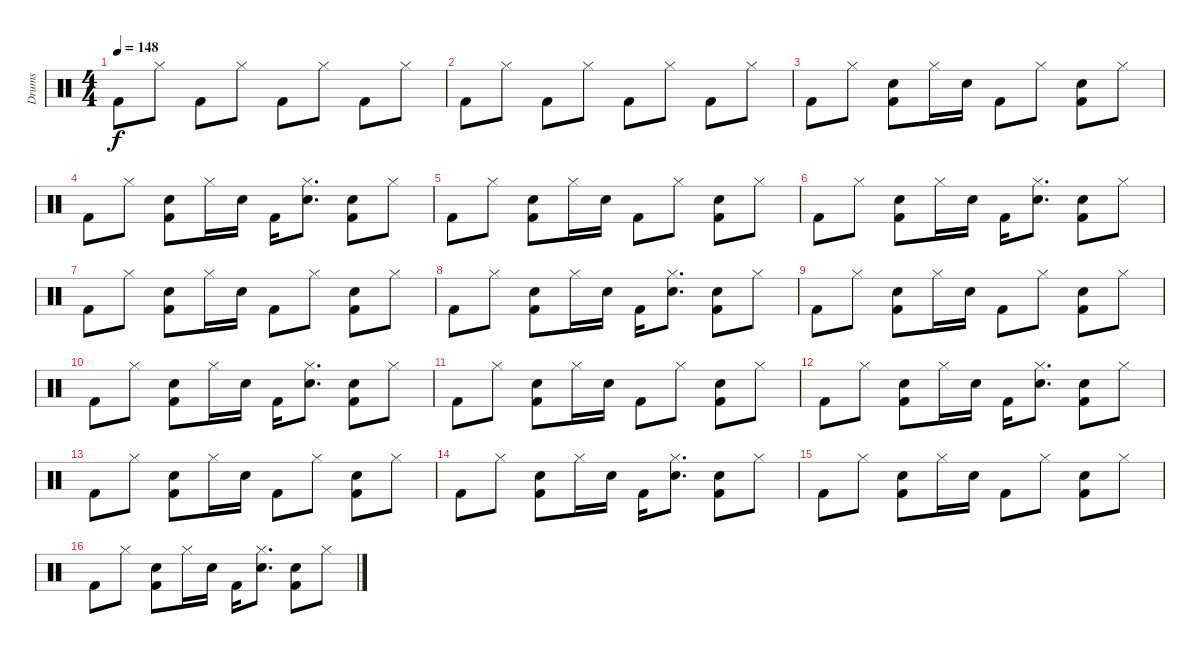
\track ("Drums" "Drums") {instrument percussion}
\staff {score}
\articulation defaults
\ts (4 4)
\tempo 148
\clef neutral
\ks c "Kick (hit) 2".8{dy f} "Hi-Hat (closed)".8 "Kick (hit) 2".8 "Hi-Hat (closed)".8 "Kick (hit) 2".8 "Hi-Hat (closed)".8 "Kick (hit) 2".8 "Hi-Hat (closed)".8
|
"Kick (hit) 2".8 "Hi-Hat (closed)".8 "Kick (hit) 2".8 "Hi-Hat (closed)".8 "Kick (hit) 2".8 "Hi-Hat (closed)".8 "Kick (hit) 2".8 "Hi-Hat (closed)".8 |
"Kick (hit) 2".8 "Hi-Hat (closed)".8 ("Electric Snare (hit)" "Kick (hit) 2").8 "Hi-Hat (closed)".16 "Electric Snare (hit)".16 "Kick (hit) 2".8 "Hi-Hat (closed)".8 ("Electric Snare (hit)" "Kick (hit) 2").8 "Hi-Hat (closed)".8 |
"Kick (hit) 2".8 "Hi-Hat (closed)".8 ("Electric Snare (hit)" "Kick (hit) 2").8 "Hi-Hat (closed)".16 "Electric Snare (hit)".16 "Kick (hit) 2".16 ("Hi-Hat (closed)" "Electric Snare (hit)").8{d} ("Electric Snare (hit)" "Kick (hit) 2").8 "Hi-Hat (closed)".8 |
"Kick (hit) 2".8 "Hi-Hat (closed)".8 ("Electric Snare (hit)" "Kick (hit) 2").8 "Hi-Hat (closed)".16 "Electric Snare (hit)".16 "Kick (hit) 2".8 "Hi-Hat (closed)".8 ("Electric Snare (hit)" "Kick (hit) 2").8 "Hi-Hat (closed)".8 |
"Kick (hit) 2".8 "Hi-Hat (closed)".8 ("Electric Snare (hit)" "Kick (hit) 2").8 "Hi-Hat (closed)".16 "Electric Snare (hit)".16 "Kick (hit) 2".16 ("Hi-Hat (closed)" "Electric Snare (hit)").8{d} ("Electric Snare (hit)" "Kick (hit) 2").8 "Hi-Hat (closed)".8 |
"Kick (hit) 2".8 "Hi-Hat (closed)".8 ("Electric Snare (hit)" "Kick (hit) 2").8 "Hi-Hat (closed)".16 "Electric Snare (hit)".16 "Kick (hit) 2".8 "Hi-Hat (closed)".8 ("Electric Snare (hit)" "Kick (hit) 2").8 "Hi-Hat (closed)".8 |
"Kick (hit) 2".8 "Hi-Hat (closed)".8 ("Electric Snare (hit)" "Kick (hit) 2").8 "Hi-Hat (closed)".16 "Electric Snare (hit)".16 "Kick (hit) 2".16 ("Hi-Hat (closed)" "Electric Snare (hit)").8{d} ("Electric Snare (hit)" "Kick (hit) 2").8 "Hi-Hat (closed)".8 |
"Kick (hit) 2".8 "Hi-Hat (closed)".8 ("Electric Snare (hit)" "Kick (hit) 2").8 "Hi-Hat (closed)".16 "Electric Snare (hit)".16 "Kick (hit) 2".8 "Hi-Hat (closed)".8 ("Electric Snare (hit)" "Kick (hit) 2").8 "Hi-Hat (closed)".8 |
"Kick (hit) 2".8 "Hi-Hat (closed)".8 ("Electric Snare (hit)" "Kick (hit) 2").8 "Hi-Hat (closed)".16 "Electric Snare (hit)".16 "Kick (hit) 2".16 ("Hi-Hat (closed)" "Electric Snare (hit)").8{d} ("Electric Snare (hit)" "Kick (hit) 2").8 "Hi-Hat (closed)".8 |
"Kick (hit) 2".8 "Hi-Hat (closed)".8 ("Electric Snare (hit)" "Kick (hit) 2").8 "Hi-Hat (closed)".16 "Electric Snare (hit)".16 "Kick (hit) 2".8 "Hi-Hat (closed)".8 ("Electric Snare (hit)" "Kick (hit) 2").8 "Hi-Hat (closed)".8 |
"Kick (hit) 2".8 "Hi-Hat (closed)".8 ("Electric Snare (hit)" "Kick (hit) 2").8 "Hi-Hat (closed)".16 "Electric Snare (hit)".16 "Kick (hit) 2".16 ("Hi-Hat (closed)" "Electric Snare (hit)").8{d} ("Electric Snare (hit)" "Kick (hit) 2").8 "Hi-Hat (closed)".8 |
"Kick (hit) 2".8 "Hi-Hat (closed)".8 ("Electric Snare (hit)" "Kick (hit) 2").8 "Hi-Hat (closed)".16 "Electric Snare (hit)".16 "Kick (hit) 2".8 "Hi-Hat (closed)".8 ("Electric Snare (hit)" "Kick (hit) 2").8 "Hi-Hat (closed)".8 |
"Kick (hit) 2".8 "Hi-Hat (closed)".8 ("Electric Snare (hit)" "Kick (hit) 2").8 "Hi-Hat (closed)".16 "Electric Snare (hit)".16 "Kick (hit) 2".16 ("Hi-Hat (closed)" "Electric Snare (hit)").8{d} ("Electric Snare (hit)" "Kick (hit) 2").8 "Hi-Hat (closed)".8 |
"Kick (hit) 2".8 "Hi-Hat (closed)".8 ("Electric Snare (hit)" "Kick (hit) 2").8 "Hi-Hat (closed)".16 "Electric Snare (hit)".16 "Kick (hit) 2".8 "Hi-Hat (closed)".8 ("Electric Snare (hit)" "Kick (hit) 2").8 "Hi-Hat (closed)".8 |
"Kick (hit) 2".8 "Hi-Hat (closed)".8 ("Electric Snare (hit)" "Kick (hit) 2").8 "Hi-Hat (closed)".16 "Electric Snare (hit)".16 "Kick (hit) 2".16 ("Hi-Hat (closed)" "Electric Snare (hit)").8{d} ("Electric Snare (hit)" "Kick (hit) 2").8 "Hi-Hat (closed)".8
